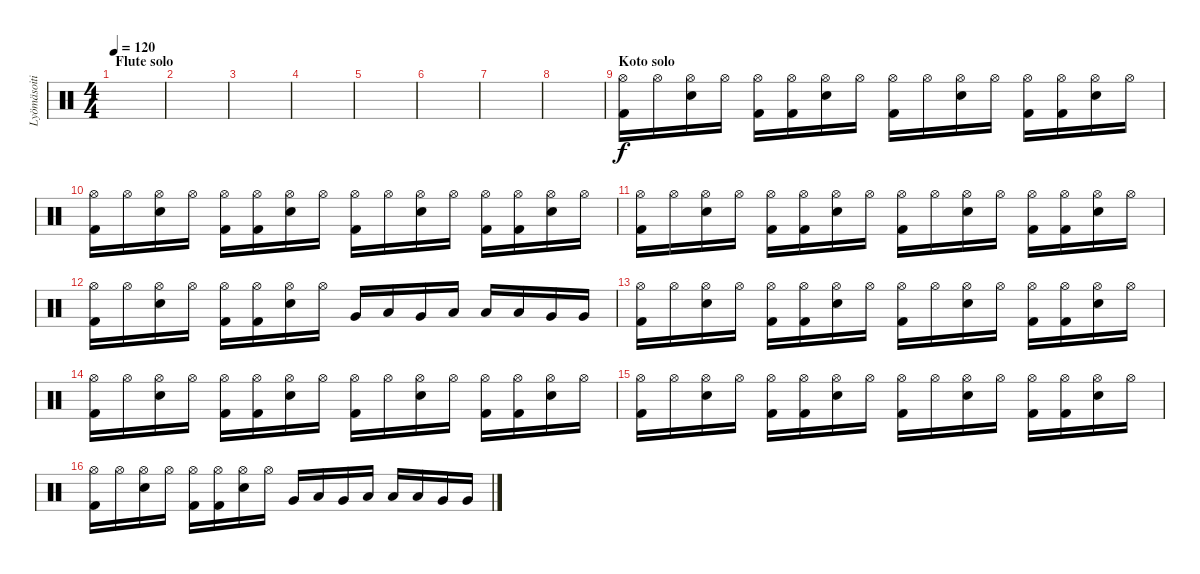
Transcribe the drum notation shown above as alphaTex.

\track ("Lyömäsoitin" "Lyömäsoiti") {instrument percussion}
\staff {score}
\articulation defaults
\ts (4 4)
\section ("" "Flute solo")
\tempo 120
\clef neutral
\ks c
|
|
|
|
|
|
|
|
\section ("" "Koto solo")
("Hi-Hat (open)" "Kick (hit) 2").16 "Hi-Hat (open)".16 ("Hi-Hat (open)" "Electric Snare (hit)").16 "Hi-Hat (open)".16 ("Hi-Hat (open)" "Kick (hit) 2").16 ("Hi-Hat (open)" "Kick (hit) 2").16 ("Hi-Hat (open)" "Electric Snare (hit)").16 "Hi-Hat (open)".16 ("Hi-Hat (open)" "Kick (hit) 2").16 "Hi-Hat (open)".16 ("Hi-Hat (open)" "Electric Snare (hit)").16 "Hi-Hat (open)".16 ("Hi-Hat (open)" "Kick (hit) 2").16 ("Hi-Hat (open)" "Kick (hit) 2").16 ("Hi-Hat (open)" "Electric Snare (hit)").16 "Hi-Hat (open)".16 |
("Hi-Hat (open)" "Kick (hit) 2").16 "Hi-Hat (open)".16 ("Hi-Hat (open)" "Electric Snare (hit)").16 "Hi-Hat (open)".16 ("Hi-Hat (open)" "Kick (hit) 2").16 ("Hi-Hat (open)" "Kick (hit) 2").16 ("Hi-Hat (open)" "Electric Snare (hit)").16 "Hi-Hat (open)".16 ("Hi-Hat (open)" "Kick (hit) 2").16 "Hi-Hat (open)".16 ("Hi-Hat (open)" "Electric Snare (hit)").16 "Hi-Hat (open)".16 ("Hi-Hat (open)" "Kick (hit) 2").16 ("Hi-Hat (open)" "Kick (hit) 2").16 ("Hi-Hat (open)" "Electric Snare (hit)").16 "Hi-Hat (open)".16 |
("Hi-Hat (open)" "Kick (hit) 2").16 "Hi-Hat (open)".16 ("Hi-Hat (open)" "Electric Snare (hit)").16 "Hi-Hat (open)".16 ("Hi-Hat (open)" "Kick (hit) 2").16 ("Hi-Hat (open)" "Kick (hit) 2").16 ("Hi-Hat (open)" "Electric Snare (hit)").16 "Hi-Hat (open)".16 ("Hi-Hat (open)" "Kick (hit) 2").16 "Hi-Hat (open)".16 ("Hi-Hat (open)" "Electric Snare (hit)").16 "Hi-Hat (open)".16 ("Hi-Hat (open)" "Kick (hit) 2").16 ("Hi-Hat (open)" "Kick (hit) 2").16 ("Hi-Hat (open)" "Electric Snare (hit)").16 "Hi-Hat (open)".16 |
("Hi-Hat (open)" "Kick (hit) 2").16 "Hi-Hat (open)".16 ("Hi-Hat (open)" "Electric Snare (hit)").16 "Hi-Hat (open)".16 ("Hi-Hat (open)" "Kick (hit) 2").16 ("Hi-Hat (open)" "Kick (hit) 2").16 ("Hi-Hat (open)" "Electric Snare (hit)").16 "Hi-Hat (open)".16 "Very Low Tom (hit)".16 "Low Floor Tom (hit)".16 "Very Low Tom (hit)".16 "Low Floor Tom (hit)".16 "Low Tom (hit)".16 "Low Tom (hit)".16 "Very Low Tom (hit)".16 "Very Low Tom (hit)".16 |
("Hi-Hat (open)" "Kick (hit) 2").16 "Hi-Hat (open)".16 ("Hi-Hat (open)" "Electric Snare (hit)").16 "Hi-Hat (open)".16 ("Hi-Hat (open)" "Kick (hit) 2").16 ("Hi-Hat (open)" "Kick (hit) 2").16 ("Hi-Hat (open)" "Electric Snare (hit)").16 "Hi-Hat (open)".16 ("Hi-Hat (open)" "Kick (hit) 2").16 "Hi-Hat (open)".16 ("Hi-Hat (open)" "Electric Snare (hit)").16 "Hi-Hat (open)".16 ("Hi-Hat (open)" "Kick (hit) 2").16 ("Hi-Hat (open)" "Kick (hit) 2").16 ("Hi-Hat (open)" "Electric Snare (hit)").16 "Hi-Hat (open)".16 |
("Hi-Hat (open)" "Kick (hit) 2").16 "Hi-Hat (open)".16 ("Hi-Hat (open)" "Electric Snare (hit)").16 "Hi-Hat (open)".16 ("Hi-Hat (open)" "Kick (hit) 2").16 ("Hi-Hat (open)" "Kick (hit) 2").16 ("Hi-Hat (open)" "Electric Snare (hit)").16 "Hi-Hat (open)".16 ("Hi-Hat (open)" "Kick (hit) 2").16 "Hi-Hat (open)".16 ("Hi-Hat (open)" "Electric Snare (hit)").16 "Hi-Hat (open)".16 ("Hi-Hat (open)" "Kick (hit) 2").16 ("Hi-Hat (open)" "Kick (hit) 2").16 ("Hi-Hat (open)" "Electric Snare (hit)").16 "Hi-Hat (open)".16 |
("Hi-Hat (open)" "Kick (hit) 2").16 "Hi-Hat (open)".16 ("Hi-Hat (open)" "Electric Snare (hit)").16 "Hi-Hat (open)".16 ("Hi-Hat (open)" "Kick (hit) 2").16 ("Hi-Hat (open)" "Kick (hit) 2").16 ("Hi-Hat (open)" "Electric Snare (hit)").16 "Hi-Hat (open)".16 ("Hi-Hat (open)" "Kick (hit) 2").16 "Hi-Hat (open)".16 ("Hi-Hat (open)" "Electric Snare (hit)").16 "Hi-Hat (open)".16 ("Hi-Hat (open)" "Kick (hit) 2").16 ("Hi-Hat (open)" "Kick (hit) 2").16 ("Hi-Hat (open)" "Electric Snare (hit)").16 "Hi-Hat (open)".16 |
("Hi-Hat (open)" "Kick (hit) 2").16 "Hi-Hat (open)".16 ("Hi-Hat (open)" "Electric Snare (hit)").16 "Hi-Hat (open)".16 ("Hi-Hat (open)" "Kick (hit) 2").16 ("Hi-Hat (open)" "Kick (hit) 2").16 ("Hi-Hat (open)" "Electric Snare (hit)").16 "Hi-Hat (open)".16 "Very Low Tom (hit)".16 "Low Floor Tom (hit)".16 "Very Low Tom (hit)".16 "Low Floor Tom (hit)".16 "Low Tom (hit)".16 "Low Tom (hit)".16 "Very Low Tom (hit)".16 "Very Low Tom (hit)".16
